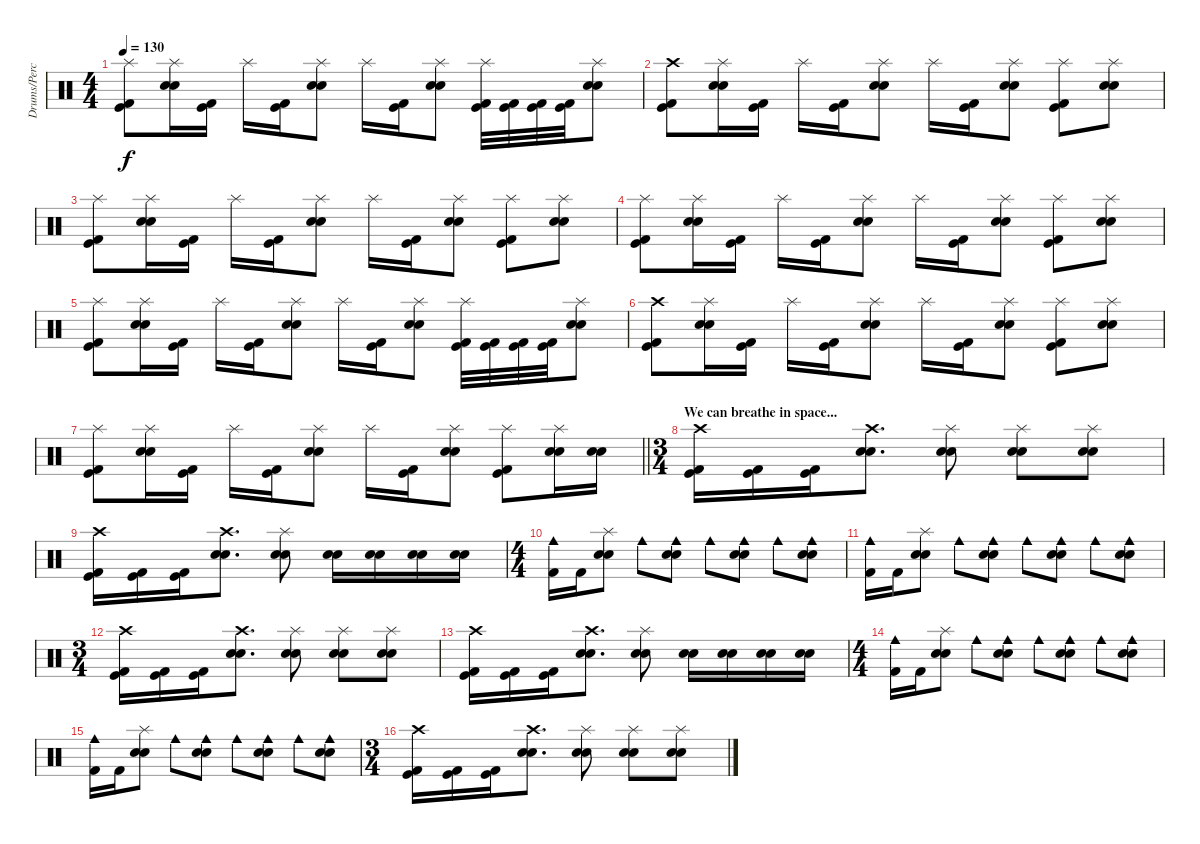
\track ("Drums/Percussion" "Drums/Perc") {instrument percussion}
\staff {score}
\articulation defaults
\ts (4 4)
\tempo 130
\clef neutral
\ks c
("Splash (hit)" "Kick (hit)" "Kick (hit) 2").8{dy f} ("Splash (hit)" "Electric Snare (hit)" "Snare (hit) 2").16 ("Kick (hit)" "Kick (hit) 2").16 "Splash (hit)".16 ("Kick (hit)" "Kick (hit) 2").16 ("Splash (hit)" "Electric Snare (hit)" "Snare (hit) 2").8 "Splash (hit)".16 ("Kick (hit)" "Kick (hit) 2").16 ("Splash (hit)" "Electric Snare (hit)" "Snare (hit) 2").8 ("Splash (hit)" "Kick (hit)" "Kick (hit) 2").32 ("Kick (hit)" "Kick (hit) 2").32 ("Kick (hit)" "Kick (hit) 2").32 ("Kick (hit)" "Kick (hit) 2").32 ("Splash (hit)" "Electric Snare (hit)" "Snare (hit) 2").8 |
("Crash high (hit)" "Kick (hit)" "Kick (hit) 2").8 ("Splash (hit)" "Electric Snare (hit)" "Snare (hit) 2").16 ("Kick (hit)" "Kick (hit) 2").16 "Splash (hit)".16 ("Kick (hit)" "Kick (hit) 2").16 ("Splash (hit)" "Electric Snare (hit)" "Snare (hit) 2").8 "Splash (hit)".16 ("Kick (hit)" "Kick (hit) 2").16 ("Splash (hit)" "Electric Snare (hit)" "Snare (hit) 2").8 ("Splash (hit)" "Kick (hit)" "Kick (hit) 2").8 ("Splash (hit)" "Electric Snare (hit)" "Snare (hit) 2").8 |
("Splash (hit)" "Kick (hit)" "Kick (hit) 2").8 ("Splash (hit)" "Electric Snare (hit)" "Snare (hit) 2").16 ("Kick (hit)" "Kick (hit) 2").16 "Splash (hit)".16 ("Kick (hit)" "Kick (hit) 2").16 ("Splash (hit)" "Electric Snare (hit)" "Snare (hit) 2").8 "Splash (hit)".16 ("Kick (hit)" "Kick (hit) 2").16 ("Splash (hit)" "Electric Snare (hit)" "Snare (hit) 2").8 ("Splash (hit)" "Kick (hit)" "Kick (hit) 2").8 ("Splash (hit)" "Electric Snare (hit)" "Snare (hit) 2").8 |
("Splash (hit)" "Kick (hit)" "Kick (hit) 2").8 ("Splash (hit)" "Electric Snare (hit)" "Snare (hit) 2").16 ("Kick (hit)" "Kick (hit) 2").16 "Splash (hit)".16 ("Kick (hit)" "Kick (hit) 2").16 ("Splash (hit)" "Electric Snare (hit)" "Snare (hit) 2").8 "Splash (hit)".16 ("Kick (hit)" "Kick (hit) 2").16 ("Splash (hit)" "Electric Snare (hit)" "Snare (hit) 2").8 ("Splash (hit)" "Kick (hit)" "Kick (hit) 2").8 ("Splash (hit)" "Electric Snare (hit)" "Snare (hit) 2").8 |
("Splash (hit)" "Kick (hit)" "Kick (hit) 2").8 ("Splash (hit)" "Electric Snare (hit)" "Snare (hit) 2").16 ("Kick (hit)" "Kick (hit) 2").16 "Splash (hit)".16 ("Kick (hit)" "Kick (hit) 2").16 ("Splash (hit)" "Electric Snare (hit)" "Snare (hit) 2").8 "Splash (hit)".16 ("Kick (hit)" "Kick (hit) 2").16 ("Splash (hit)" "Electric Snare (hit)" "Snare (hit) 2").8 ("Splash (hit)" "Kick (hit)" "Kick (hit) 2").32 ("Kick (hit)" "Kick (hit) 2").32 ("Kick (hit)" "Kick (hit) 2").32 ("Kick (hit)" "Kick (hit) 2").32 ("Splash (hit)" "Electric Snare (hit)" "Snare (hit) 2").8 |
("Crash high (hit)" "Kick (hit)" "Kick (hit) 2").8 ("Splash (hit)" "Electric Snare (hit)" "Snare (hit) 2").16 ("Kick (hit)" "Kick (hit) 2").16 "Splash (hit)".16 ("Kick (hit)" "Kick (hit) 2").16 ("Splash (hit)" "Electric Snare (hit)" "Snare (hit) 2").8 "Splash (hit)".16 ("Kick (hit)" "Kick (hit) 2").16 ("Splash (hit)" "Electric Snare (hit)" "Snare (hit) 2").8 ("Splash (hit)" "Kick (hit)" "Kick (hit) 2").8 ("Splash (hit)" "Electric Snare (hit)" "Snare (hit) 2").8 |
\barLineRight lightlight
("Splash (hit)" "Kick (hit)" "Kick (hit) 2").8 ("Splash (hit)" "Electric Snare (hit)" "Snare (hit) 2").16 ("Kick (hit)" "Kick (hit) 2").16 "Splash (hit)".16 ("Kick (hit)" "Kick (hit) 2").16 ("Splash (hit)" "Electric Snare (hit)" "Snare (hit) 2").8 "Splash (hit)".16 ("Kick (hit)" "Kick (hit) 2").16 ("Splash (hit)" "Electric Snare (hit)" "Snare (hit) 2").8 ("Splash (hit)" "Kick (hit)" "Kick (hit) 2").8 ("Splash (hit)" "Electric Snare (hit)" "Snare (hit) 2").16 ("Electric Snare (hit)" "Snare (hit) 2").16 |
\ts (3 4)
\section ("" "We can breathe in space...")
("Crash high (hit)" "Kick (hit)" "Kick (hit) 2").16 ("Kick (hit)" "Kick (hit) 2").16 ("Kick (hit)" "Kick (hit) 2").16 ("Crash high (hit)" "Electric Snare (hit)" "Snare (hit) 2").8{d} ("Splash (hit)" "Electric Snare (hit)" "Snare (hit) 2").8 ("Splash (hit)" "Electric Snare (hit)" "Snare (hit) 2").8 ("Splash (hit)" "Electric Snare (hit)" "Snare (hit) 2").8 |
("Crash high (hit)" "Kick (hit)" "Kick (hit) 2").16 ("Kick (hit)" "Kick (hit) 2").16 ("Kick (hit)" "Kick (hit) 2").16 ("Crash high (hit)" "Electric Snare (hit)" "Snare (hit) 2").8{d} ("Splash (hit)" "Electric Snare (hit)" "Snare (hit) 2").8 ("Electric Snare (hit)" "Snare (hit) 2").16 ("Electric Snare (hit)" "Snare (hit) 2").16 ("Electric Snare (hit)" "Snare (hit) 2").16 ("Electric Snare (hit)" "Snare (hit) 2").16 |
\ts (4 4)
("Cowbell medium (hit)" "Kick (hit) 2").16 "Kick (hit) 2".16 ("Splash (hit)" "Electric Snare (hit)" "Snare (hit) 2").8 "Cowbell medium (hit)".8 ("Cowbell medium (hit)" "Electric Snare (hit)" "Snare (hit) 2").8 "Cowbell medium (hit)".8 ("Cowbell medium (hit)" "Electric Snare (hit)" "Snare (hit) 2").8 "Cowbell medium (hit)".8 ("Cowbell medium (hit)" "Electric Snare (hit)" "Snare (hit) 2").8 |
("Cowbell medium (hit)" "Kick (hit) 2").16 "Kick (hit) 2".16 ("Splash (hit)" "Electric Snare (hit)" "Snare (hit) 2").8 "Cowbell medium (hit)".8 ("Cowbell medium (hit)" "Electric Snare (hit)" "Snare (hit) 2").8 "Cowbell medium (hit)".8 ("Cowbell medium (hit)" "Electric Snare (hit)" "Snare (hit) 2").8 "Cowbell medium (hit)".8 ("Cowbell medium (hit)" "Electric Snare (hit)" "Snare (hit) 2").8 |
\ts (3 4)
("Crash high (hit)" "Kick (hit)" "Kick (hit) 2").16 ("Kick (hit)" "Kick (hit) 2").16 ("Kick (hit)" "Kick (hit) 2").16 ("Crash high (hit)" "Electric Snare (hit)" "Snare (hit) 2").8{d} ("Splash (hit)" "Electric Snare (hit)" "Snare (hit) 2").8 ("Splash (hit)" "Electric Snare (hit)" "Snare (hit) 2").8 ("Splash (hit)" "Electric Snare (hit)" "Snare (hit) 2").8 |
("Crash high (hit)" "Kick (hit)" "Kick (hit) 2").16 ("Kick (hit)" "Kick (hit) 2").16 ("Kick (hit)" "Kick (hit) 2").16 ("Crash high (hit)" "Electric Snare (hit)" "Snare (hit) 2").8{d} ("Splash (hit)" "Electric Snare (hit)" "Snare (hit) 2").8 ("Electric Snare (hit)" "Snare (hit) 2").16 ("Electric Snare (hit)" "Snare (hit) 2").16 ("Electric Snare (hit)" "Snare (hit) 2").16 ("Electric Snare (hit)" "Snare (hit) 2").16 |
\ts (4 4)
("Cowbell medium (hit)" "Kick (hit) 2").16 "Kick (hit) 2".16 ("Splash (hit)" "Electric Snare (hit)" "Snare (hit) 2").8 "Cowbell medium (hit)".8 ("Cowbell medium (hit)" "Electric Snare (hit)" "Snare (hit) 2").8 "Cowbell medium (hit)".8 ("Cowbell medium (hit)" "Electric Snare (hit)" "Snare (hit) 2").8 "Cowbell medium (hit)".8 ("Cowbell medium (hit)" "Electric Snare (hit)" "Snare (hit) 2").8 |
("Cowbell medium (hit)" "Kick (hit) 2").16 "Kick (hit) 2".16 ("Splash (hit)" "Electric Snare (hit)" "Snare (hit) 2").8 "Cowbell medium (hit)".8 ("Cowbell medium (hit)" "Electric Snare (hit)" "Snare (hit) 2").8 "Cowbell medium (hit)".8 ("Cowbell medium (hit)" "Electric Snare (hit)" "Snare (hit) 2").8 "Cowbell medium (hit)".8 ("Cowbell medium (hit)" "Electric Snare (hit)" "Snare (hit) 2").8 |
\ts (3 4)
("Crash high (hit)" "Kick (hit)" "Kick (hit) 2").16 ("Kick (hit)" "Kick (hit) 2").16 ("Kick (hit)" "Kick (hit) 2").16 ("Crash high (hit)" "Electric Snare (hit)" "Snare (hit) 2").8{d} ("Splash (hit)" "Electric Snare (hit)" "Snare (hit) 2").8 ("Splash (hit)" "Electric Snare (hit)" "Snare (hit) 2").8 ("Splash (hit)" "Electric Snare (hit)" "Snare (hit) 2").8
